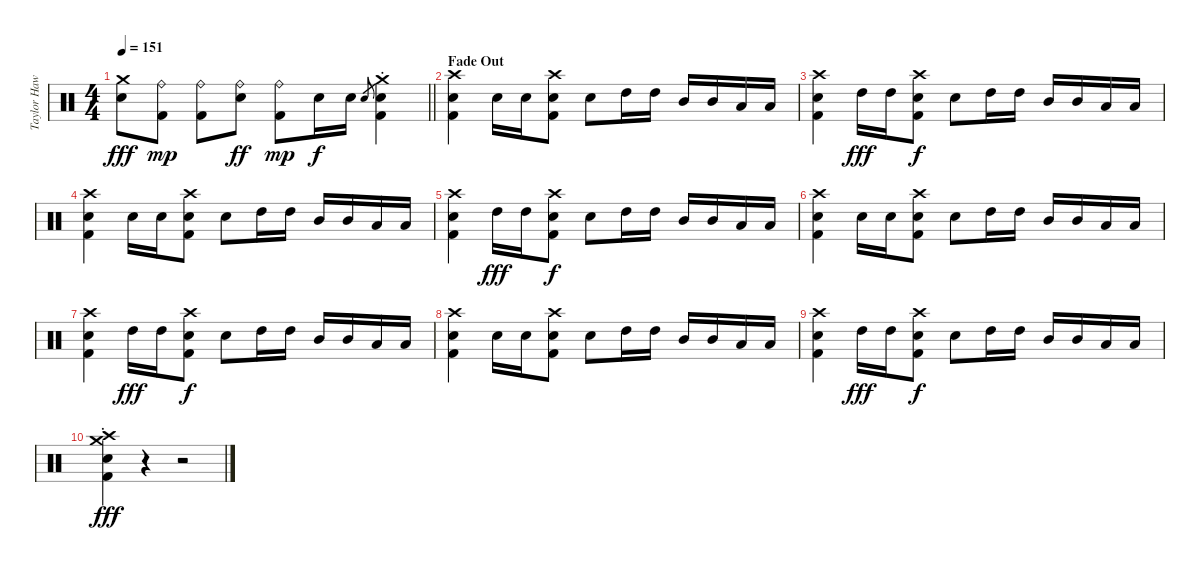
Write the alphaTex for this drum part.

\track ("Taylor Hawkins" "Taylor Haw") {instrument percussion}
\staff {score}
\articulation defaults
\ts (4 4)
\tempo 151
\clef neutral
\barLineRight lightlight
\ks c
("Crash medium (hit)" "Electric Snare (hit)").8{dy fff} ("Ride (bell)" "Kick (hit) 2").8{dy mp} ("Ride (bell)" "Kick (hit) 2").8 ("Ride (bell)" "Electric Snare (hit)").8{dy ff} ("Ride (bell)" "Kick (hit) 2").8{dy mp} "Electric Snare (hit)".16{dy f} "Electric Snare (hit)".16 "Electric Snare (hit)".8{gr} ("Crash medium (hit)"{st} "Electric Snare (hit)" "Kick (hit) 2").4 |
\section ("" "Fade Out")
("Crash high (hit)" "Electric Snare (hit)" "Kick (hit) 2").4 "Electric Snare (hit)".16 "Electric Snare (hit)".16 ("Crash high (hit)" "Electric Snare (hit)" "Kick (hit) 2").8 "Electric Snare (hit)".8 "High Tom (hit)".16 "High Tom (hit)".16 "Mid Tom (hit)".16 "Mid Tom (hit)".16 "Low Tom (hit)".16 "Low Tom (hit)".16 |
("Crash high (hit)" "Electric Snare (hit)" "Kick (hit) 2").4 "High Tom (hit)".16{dy fff} "High Tom (hit)".16 ("Crash high (hit)" "Electric Snare (hit)" "Kick (hit) 2").8{dy f} "Electric Snare (hit)".8 "High Tom (hit)".16 "High Tom (hit)".16 "Mid Tom (hit)".16 "Mid Tom (hit)".16 "Low Tom (hit)".16 "Low Tom (hit)".16 |
("Crash high (hit)" "Electric Snare (hit)" "Kick (hit) 2").4 "Electric Snare (hit)".16 "Electric Snare (hit)".16 ("Crash high (hit)" "Electric Snare (hit)" "Kick (hit) 2").8 "Electric Snare (hit)".8 "High Tom (hit)".16 "High Tom (hit)".16 "Mid Tom (hit)".16 "Mid Tom (hit)".16 "Low Tom (hit)".16 "Low Tom (hit)".16 |
("Crash high (hit)" "Electric Snare (hit)" "Kick (hit) 2").4 "High Tom (hit)".16{dy fff} "High Tom (hit)".16 ("Crash high (hit)" "Electric Snare (hit)" "Kick (hit) 2").8{dy f} "Electric Snare (hit)".8 "High Tom (hit)".16 "High Tom (hit)".16 "Mid Tom (hit)".16 "Mid Tom (hit)".16 "Low Tom (hit)".16 "Low Tom (hit)".16 |
("Crash high (hit)" "Electric Snare (hit)" "Kick (hit) 2").4 "Electric Snare (hit)".16 "Electric Snare (hit)".16 ("Crash high (hit)" "Electric Snare (hit)" "Kick (hit) 2").8 "Electric Snare (hit)".8 "High Tom (hit)".16 "High Tom (hit)".16 "Mid Tom (hit)".16 "Mid Tom (hit)".16 "Low Tom (hit)".16 "Low Tom (hit)".16 |
("Crash high (hit)" "Electric Snare (hit)" "Kick (hit) 2").4 "High Tom (hit)".16{dy fff} "High Tom (hit)".16 ("Crash high (hit)" "Electric Snare (hit)" "Kick (hit) 2").8{dy f} "Electric Snare (hit)".8 "High Tom (hit)".16 "High Tom (hit)".16 "Mid Tom (hit)".16 "Mid Tom (hit)".16 "Low Tom (hit)".16 "Low Tom (hit)".16 |
("Crash high (hit)" "Electric Snare (hit)" "Kick (hit) 2").4 "Electric Snare (hit)".16 "Electric Snare (hit)".16 ("Crash high (hit)" "Electric Snare (hit)" "Kick (hit) 2").8 "Electric Snare (hit)".8 "High Tom (hit)".16 "High Tom (hit)".16 "Mid Tom (hit)".16 "Mid Tom (hit)".16 "Low Tom (hit)".16 "Low Tom (hit)".16 |
("Crash high (hit)" "Electric Snare (hit)" "Kick (hit) 2").4 "High Tom (hit)".16{dy fff} "High Tom (hit)".16 ("Crash high (hit)" "Electric Snare (hit)" "Kick (hit) 2").8{dy f} "Electric Snare (hit)".8 "High Tom (hit)".16 "High Tom (hit)".16 "Mid Tom (hit)".16 "Mid Tom (hit)".16 "Low Tom (hit)".16 "Low Tom (hit)".16 |
("Crash medium (hit)"{st} "Crash high (hit)"{st} "Electric Snare (hit)"{st} "Kick (hit) 2"{st}).4{dy fff} r.4 r.2
